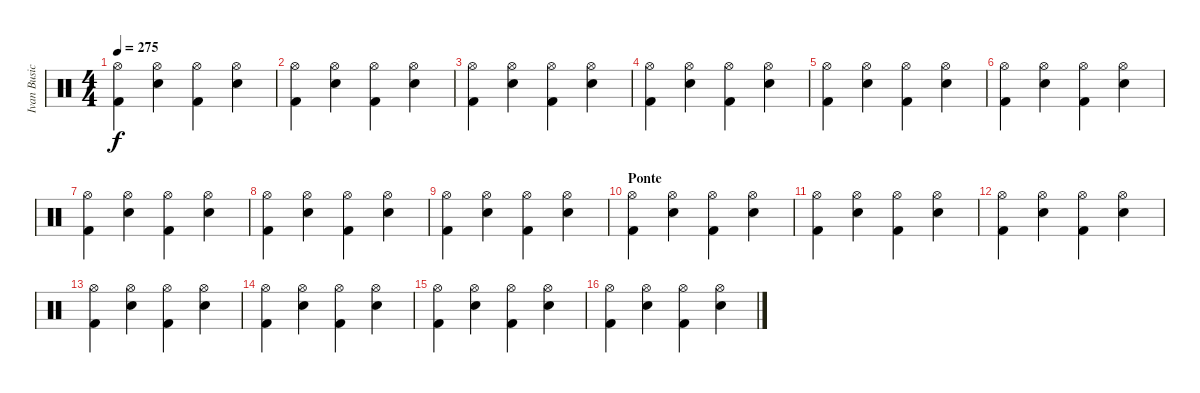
\track ("Ivan Busic" "Ivan Busic") {instrument percussion}
\staff {score}
\articulation defaults
\ts (4 4)
\tempo 275
\clef neutral
\ks c
("Hi-Hat (open)" "Kick (hit) 2").4{dy f} ("Hi-Hat (open)" "Electric Snare (hit)").4 ("Hi-Hat (open)" "Kick (hit) 2").4 ("Hi-Hat (open)" "Electric Snare (hit)").4 |
("Hi-Hat (open)" "Kick (hit) 2").4 ("Hi-Hat (open)" "Electric Snare (hit)").4 ("Hi-Hat (open)" "Kick (hit) 2").4 ("Hi-Hat (open)" "Electric Snare (hit)").4 |
("Hi-Hat (open)" "Kick (hit) 2").4 ("Hi-Hat (open)" "Electric Snare (hit)").4 ("Hi-Hat (open)" "Kick (hit) 2").4 ("Hi-Hat (open)" "Electric Snare (hit)").4 |
("Hi-Hat (open)" "Kick (hit) 2").4 ("Hi-Hat (open)" "Electric Snare (hit)").4 ("Hi-Hat (open)" "Kick (hit) 2").4 ("Hi-Hat (open)" "Electric Snare (hit)").4 |
("Hi-Hat (open)" "Kick (hit) 2").4 ("Hi-Hat (open)" "Electric Snare (hit)").4 ("Hi-Hat (open)" "Kick (hit) 2").4 ("Hi-Hat (open)" "Electric Snare (hit)").4 |
("Hi-Hat (open)" "Kick (hit) 2").4 ("Hi-Hat (open)" "Electric Snare (hit)").4 ("Hi-Hat (open)" "Kick (hit) 2").4 ("Hi-Hat (open)" "Electric Snare (hit)").4 |
("Hi-Hat (open)" "Kick (hit) 2").4 ("Hi-Hat (open)" "Electric Snare (hit)").4 ("Hi-Hat (open)" "Kick (hit) 2").4 ("Hi-Hat (open)" "Electric Snare (hit)").4 |
("Hi-Hat (open)" "Kick (hit) 2").4 ("Hi-Hat (open)" "Electric Snare (hit)").4 ("Hi-Hat (open)" "Kick (hit) 2").4 ("Hi-Hat (open)" "Electric Snare (hit)").4 |
("Hi-Hat (open)" "Kick (hit) 2").4 ("Hi-Hat (open)" "Electric Snare (hit)").4 ("Hi-Hat (open)" "Kick (hit) 2").4 ("Hi-Hat (open)" "Electric Snare (hit)").4 |
\section ("" "Ponte")
("Hi-Hat (open)" "Kick (hit) 2").4 ("Hi-Hat (open)" "Electric Snare (hit)").4 ("Hi-Hat (open)" "Kick (hit) 2").4 ("Hi-Hat (open)" "Electric Snare (hit)").4 |
("Hi-Hat (open)" "Kick (hit) 2").4 ("Hi-Hat (open)" "Electric Snare (hit)").4 ("Hi-Hat (open)" "Kick (hit) 2").4 ("Hi-Hat (open)" "Electric Snare (hit)").4 |
("Hi-Hat (open)" "Kick (hit) 2").4 ("Hi-Hat (open)" "Electric Snare (hit)").4 ("Hi-Hat (open)" "Kick (hit) 2").4 ("Hi-Hat (open)" "Electric Snare (hit)").4 |
("Hi-Hat (open)" "Kick (hit) 2").4 ("Hi-Hat (open)" "Electric Snare (hit)").4 ("Hi-Hat (open)" "Kick (hit) 2").4 ("Hi-Hat (open)" "Electric Snare (hit)").4 |
("Hi-Hat (open)" "Kick (hit) 2").4 ("Hi-Hat (open)" "Electric Snare (hit)").4 ("Hi-Hat (open)" "Kick (hit) 2").4 ("Hi-Hat (open)" "Electric Snare (hit)").4 |
("Hi-Hat (open)" "Kick (hit) 2").4 ("Hi-Hat (open)" "Electric Snare (hit)").4 ("Hi-Hat (open)" "Kick (hit) 2").4 ("Hi-Hat (open)" "Electric Snare (hit)").4 |
("Hi-Hat (open)" "Kick (hit) 2").4 ("Hi-Hat (open)" "Electric Snare (hit)").4 ("Hi-Hat (open)" "Kick (hit) 2").4 ("Hi-Hat (open)" "Electric Snare (hit)").4
